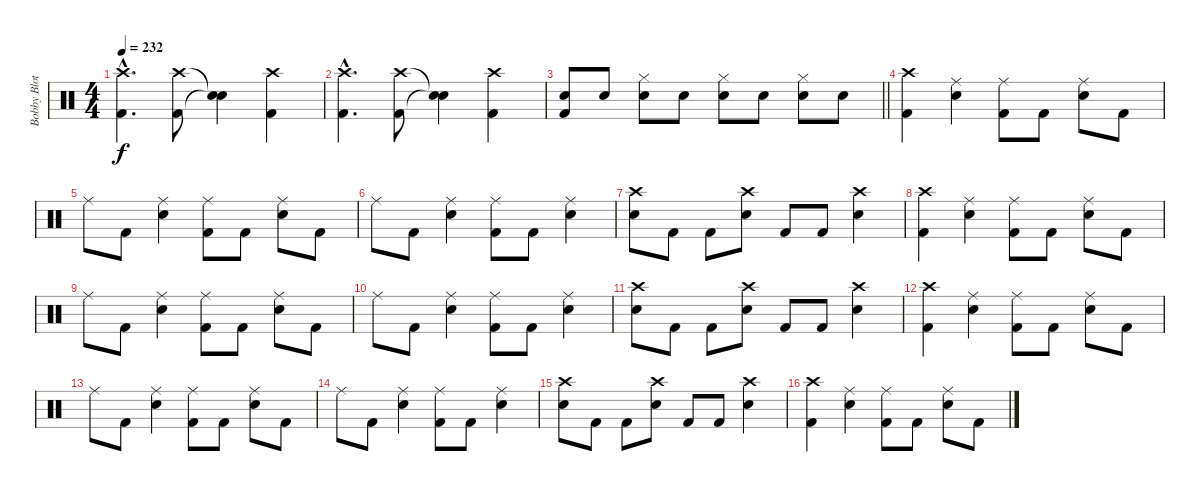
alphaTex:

\track ("Bobby Blotzer" "Bobby Blot") {instrument percussion}
\staff {score}
\articulation defaults
\ts (4 4)
\tempo 232
\clef neutral
\ks c
("Crash high (hit)"{hac} "Kick (hit) 2"{hac}).4{d dy f} ("Crash high (hit)" "Kick (hit) 2").8 ("Snare (hit)"{t} "Snare (hit)"{t}).4 ("Crash high (hit)" "Kick (hit) 2").4 |
("Crash high (hit)"{hac} "Kick (hit) 2"{hac}).4{d} ("Crash high (hit)" "Kick (hit) 2").8 ("Snare (hit)"{t} "Snare (hit)"{t}).4 ("Crash high (hit)" "Kick (hit) 2").4 |
\barLineRight lightlight
("Electric Snare (hit)" "Kick (hit) 2").8 "Electric Snare (hit)".8 ("Hi-Hat (closed)" "Electric Snare (hit)").8 "Electric Snare (hit)".8 ("Hi-Hat (closed)" "Electric Snare (hit)").8 "Electric Snare (hit)".8 ("Hi-Hat (closed)" "Electric Snare (hit)").8 "Electric Snare (hit)".8 |
("Crash high (hit)" "Kick (hit) 2").4 ("Ride (middle)" "Electric Snare (hit)").4 ("Ride (middle)" "Kick (hit) 2").8 "Kick (hit) 2".8 ("Ride (middle)" "Electric Snare (hit)").8 "Kick (hit) 2".8 |
"Ride (middle)".8 "Kick (hit) 2".8 ("Ride (middle)" "Electric Snare (hit)").4 ("Ride (middle)" "Kick (hit) 2").8 "Kick (hit) 2".8 ("Ride (middle)" "Electric Snare (hit)").8 "Kick (hit) 2".8 |
"Ride (middle)".8 "Kick (hit) 2".8 ("Ride (middle)" "Electric Snare (hit)").4 ("Ride (middle)" "Kick (hit) 2").8 "Kick (hit) 2".8 ("Ride (middle)" "Electric Snare (hit)").4 |
("Crash high (hit)" "Electric Snare (hit)").8 "Kick (hit) 2".8 "Kick (hit) 2".8 ("Crash high (hit)" "Electric Snare (hit)").8 "Kick (hit) 2".8 "Kick (hit) 2".8 ("Crash high (hit)" "Electric Snare (hit)").4 |
("Crash high (hit)" "Kick (hit) 2").4 ("Ride (middle)" "Electric Snare (hit)").4 ("Ride (middle)" "Kick (hit) 2").8 "Kick (hit) 2".8 ("Ride (middle)" "Electric Snare (hit)").8 "Kick (hit) 2".8 |
"Ride (middle)".8 "Kick (hit) 2".8 ("Ride (middle)" "Electric Snare (hit)").4 ("Ride (middle)" "Kick (hit) 2").8 "Kick (hit) 2".8 ("Ride (middle)" "Electric Snare (hit)").8 "Kick (hit) 2".8 |
"Ride (middle)".8 "Kick (hit) 2".8 ("Ride (middle)" "Electric Snare (hit)").4 ("Ride (middle)" "Kick (hit) 2").8 "Kick (hit) 2".8 ("Ride (middle)" "Electric Snare (hit)").4 |
("Crash high (hit)" "Electric Snare (hit)").8 "Kick (hit) 2".8 "Kick (hit) 2".8 ("Crash high (hit)" "Electric Snare (hit)").8 "Kick (hit) 2".8 "Kick (hit) 2".8 ("Crash high (hit)" "Electric Snare (hit)").4 |
("Crash high (hit)" "Kick (hit) 2").4 ("Ride (middle)" "Electric Snare (hit)").4 ("Ride (middle)" "Kick (hit) 2").8 "Kick (hit) 2".8 ("Ride (middle)" "Electric Snare (hit)").8 "Kick (hit) 2".8 |
"Ride (middle)".8 "Kick (hit) 2".8 ("Ride (middle)" "Electric Snare (hit)").4 ("Ride (middle)" "Kick (hit) 2").8 "Kick (hit) 2".8 ("Ride (middle)" "Electric Snare (hit)").8 "Kick (hit) 2".8 |
"Ride (middle)".8 "Kick (hit) 2".8 ("Ride (middle)" "Electric Snare (hit)").4 ("Ride (middle)" "Kick (hit) 2").8 "Kick (hit) 2".8 ("Ride (middle)" "Electric Snare (hit)").4 |
("Crash high (hit)" "Electric Snare (hit)").8 "Kick (hit) 2".8 "Kick (hit) 2".8 ("Crash high (hit)" "Electric Snare (hit)").8 "Kick (hit) 2".8 "Kick (hit) 2".8 ("Crash high (hit)" "Electric Snare (hit)").4 |
("Crash high (hit)" "Kick (hit) 2").4 ("Ride (middle)" "Electric Snare (hit)").4 ("Ride (middle)" "Kick (hit) 2").8 "Kick (hit) 2".8 ("Ride (middle)" "Electric Snare (hit)").8 "Kick (hit) 2".8
